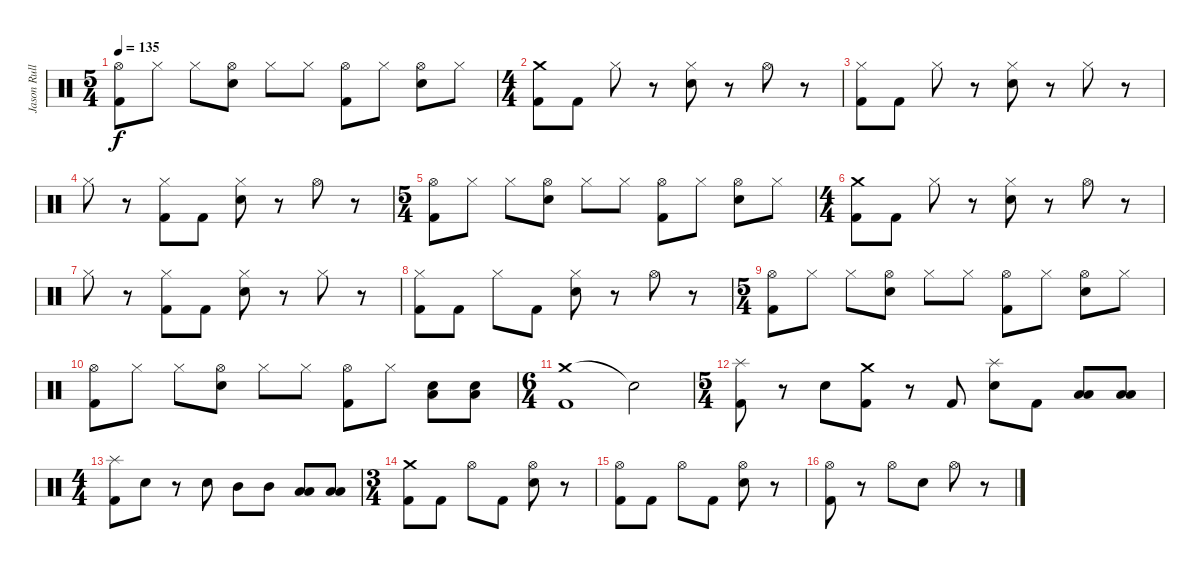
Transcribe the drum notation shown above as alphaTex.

\track ("Jason Rullo" "Jason Rull") {instrument percussion}
\staff {score}
\articulation defaults
\ts (5 4)
\tempo 135
\clef neutral
\ks c
("Hi-Hat (open)" "Kick (hit) 2").8{dy f} "Hi-Hat (closed)".8 "Hi-Hat (closed)".8 ("Hi-Hat (open)" "Electric Snare (hit)").8 "Hi-Hat (closed)".8 "Hi-Hat (closed)".8 ("Hi-Hat (open)" "Kick (hit) 2").8 "Hi-Hat (closed)".8 ("Hi-Hat (open)" "Electric Snare (hit)").8 "Hi-Hat (closed)".8 |
\ts (4 4)
("Crash medium (hit)" "Kick (hit) 2").8 "Kick (hit) 2".8 "Hi-Hat (closed)".8 r.8 ("Hi-Hat (closed)" "Electric Snare (hit)").8 r.8 "Hi-Hat (open)".8 r.8 |
("Hi-Hat (closed)" "Kick (hit) 2").8 "Kick (hit) 2".8 "Hi-Hat (closed)".8 r.8 ("Hi-Hat (closed)" "Electric Snare (hit)").8 r.8 "Hi-Hat (closed)".8 r.8 |
"Hi-Hat (closed)".8 r.8 ("Hi-Hat (closed)" "Kick (hit) 2").8 "Kick (hit) 2".8 ("Hi-Hat (closed)" "Electric Snare (hit)").8 r.8 "Hi-Hat (open)".8 r.8 |
\ts (5 4)
("Hi-Hat (open)" "Kick (hit) 2").8 "Hi-Hat (closed)".8 "Hi-Hat (closed)".8 ("Hi-Hat (open)" "Electric Snare (hit)").8 "Hi-Hat (closed)".8 "Hi-Hat (closed)".8 ("Hi-Hat (open)" "Kick (hit) 2").8 "Hi-Hat (closed)".8 ("Hi-Hat (open)" "Electric Snare (hit)").8 "Hi-Hat (closed)".8 |
\ts (4 4)
("Crash medium (hit)" "Kick (hit) 2").8 "Kick (hit) 2".8 "Hi-Hat (closed)".8 r.8 ("Hi-Hat (closed)" "Electric Snare (hit)").8 r.8 "Hi-Hat (open)".8 r.8 |
"Hi-Hat (closed)".8 r.8 ("Kick (hit) 2" "Hi-Hat (closed)").8 "Kick (hit) 2".8 ("Hi-Hat (closed)" "Electric Snare (hit)").8 r.8 "Hi-Hat (closed)".8 r.8 |
("Kick (hit) 2" "Hi-Hat (closed)").8 "Kick (hit) 2".8 "Hi-Hat (closed)".8 "Kick (hit) 2".8 ("Hi-Hat (closed)" "Electric Snare (hit)").8 r.8 "Hi-Hat (open)".8 r.8 |
\ts (5 4)
("Hi-Hat (open)" "Kick (hit) 2").8 "Hi-Hat (closed)".8 "Hi-Hat (closed)".8 ("Hi-Hat (open)" "Electric Snare (hit)").8 "Hi-Hat (closed)".8 "Hi-Hat (closed)".8 ("Hi-Hat (open)" "Kick (hit) 2").8 "Hi-Hat (closed)".8 ("Hi-Hat (open)" "Electric Snare (hit)").8 "Hi-Hat (closed)".8 |
("Hi-Hat (open)" "Kick (hit) 2").8 "Hi-Hat (closed)".8 "Hi-Hat (closed)".8 ("Hi-Hat (open)" "Electric Snare (hit)").8 "Hi-Hat (closed)".8 "Hi-Hat (closed)".8 ("Hi-Hat (open)" "Kick (hit) 2").8 "Hi-Hat (closed)".8 ("Low Tom (hit)" "Electric Snare (hit)").8 ("Low Tom (hit)" "Electric Snare (hit)").8 |
\ts (6 4)
("Crash medium (hit)" "Kick (hit) 2").1 "Snare (hit)"{t}.2 |
\ts (5 4)
("Splash (hit)" "Kick (hit) 2").8 r.8 "Electric Snare (hit)".8 ("Crash medium (hit)" "Kick (hit) 2").8 r.8 "Kick (hit) 2".8 ("Splash (hit)" "Electric Snare (hit)").8 "Kick (hit) 2".8 ("Low Tom (hit)" "Low Floor Tom (hit)").8 ("Low Tom (hit)" "Low Floor Tom (hit)").8 |
\ts (4 4)
("Splash (hit)" "Kick (hit) 2").8 "Electric Snare (hit)".8 r.8 "Electric Snare (hit)".8 "Mid Tom (hit)".8 "Mid Tom (hit)".8 ("Low Floor Tom (hit)" "Low Tom (hit)").8 ("Low Floor Tom (hit)" "Low Tom (hit)").8 |
\ts (3 4)
("Crash medium (hit)" "Kick (hit) 2").8 "Kick (hit) 2".8 "Hi-Hat (open)".8 "Kick (hit) 2".8 ("Hi-Hat (open)" "Electric Snare (hit)").8 r.8 |
("Hi-Hat (open)" "Kick (hit) 2").8 "Kick (hit) 2".8 "Hi-Hat (open)".8 "Kick (hit) 2".8 ("Hi-Hat (open)" "Electric Snare (hit)").8 r.8 |
("Hi-Hat (open)" "Kick (hit) 2").8 r.8 "Hi-Hat (open)".8 "Electric Snare (hit)".8 "Hi-Hat (open)".8 r.8
